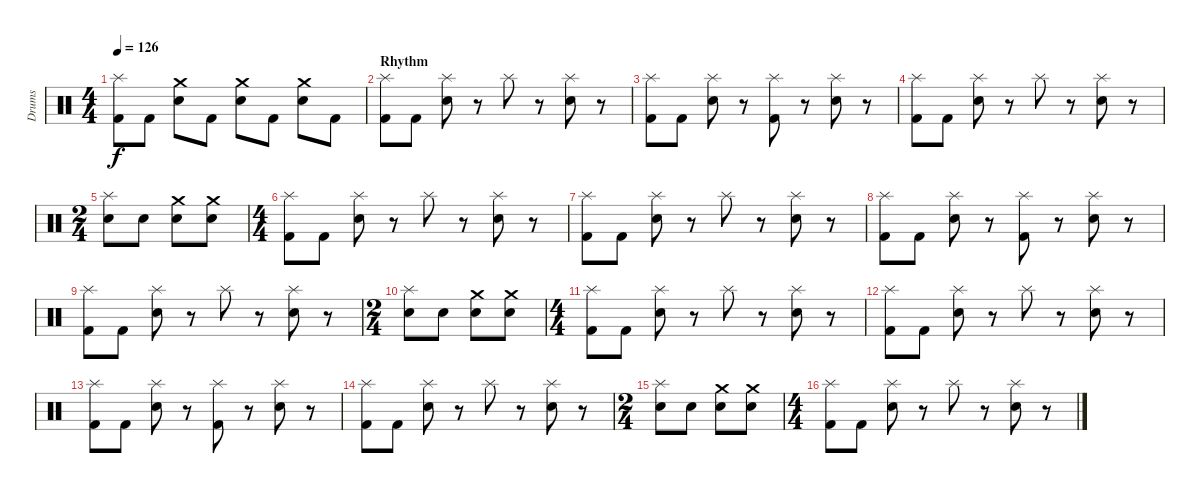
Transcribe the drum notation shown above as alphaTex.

\track ("Drums" "Drums") {instrument percussion}
\staff {score}
\articulation defaults
\ts (4 4)
\tempo 126
\clef neutral
\ks c
("Kick (hit) 2" "Splash (hit)").8{dy f} "Kick (hit) 2".8 ("Snare (hit) 2" "Crash medium (hit)").8 "Kick (hit) 2".8 ("Snare (hit) 2" "Crash medium (hit)").8 "Kick (hit) 2".8 ("Snare (hit) 2" "Crash medium (hit)").8 "Kick (hit) 2".8 |
\section ("" "Rhythm")
("Splash (hit)" "Kick (hit) 2").8 "Kick (hit) 2".8 ("Splash (hit)" "Snare (hit) 2").8 r.8 "Splash (hit)".8 r.8 ("Splash (hit)" "Snare (hit) 2").8 r.8 |
("Splash (hit)" "Kick (hit) 2").8 "Kick (hit) 2".8 ("Splash (hit)" "Snare (hit) 2").8 r.8 ("Splash (hit)" "Kick (hit) 2").8 r.8 ("Splash (hit)" "Snare (hit) 2").8 r.8 |
("Splash (hit)" "Kick (hit) 2").8 "Kick (hit) 2".8 ("Splash (hit)" "Snare (hit) 2").8 r.8 "Splash (hit)".8 r.8 ("Splash (hit)" "Snare (hit) 2").8 r.8 |
\ts (2 4)
("Splash (hit)" "Snare (hit) 2").8 "Snare (hit) 2".8 ("Crash medium (hit)" "Snare (hit) 2").8 ("Crash medium (hit)" "Snare (hit) 2").8 |
\ts (4 4)
("Splash (hit)" "Kick (hit) 2").8 "Kick (hit) 2".8 ("Splash (hit)" "Snare (hit) 2").8 r.8 "Splash (hit)".8 r.8 ("Splash (hit)" "Snare (hit) 2").8 r.8 |
("Splash (hit)" "Kick (hit) 2").8 "Kick (hit) 2".8 ("Splash (hit)" "Snare (hit) 2").8 r.8 "Splash (hit)".8 r.8 ("Splash (hit)" "Snare (hit) 2").8 r.8 |
("Splash (hit)" "Kick (hit) 2").8 "Kick (hit) 2".8 ("Splash (hit)" "Snare (hit) 2").8 r.8 ("Splash (hit)" "Kick (hit) 2").8 r.8 ("Splash (hit)" "Snare (hit) 2").8 r.8 |
("Splash (hit)" "Kick (hit) 2").8 "Kick (hit) 2".8 ("Splash (hit)" "Snare (hit) 2").8 r.8 "Splash (hit)".8 r.8 ("Splash (hit)" "Snare (hit) 2").8 r.8 |
\ts (2 4)
("Splash (hit)" "Snare (hit) 2").8 "Snare (hit) 2".8 ("Crash medium (hit)" "Snare (hit) 2").8 ("Crash medium (hit)" "Snare (hit) 2").8 |
\ts (4 4)
("Splash (hit)" "Kick (hit) 2").8 "Kick (hit) 2".8 ("Splash (hit)" "Snare (hit) 2").8 r.8 "Splash (hit)".8 r.8 ("Splash (hit)" "Snare (hit) 2").8 r.8 |
("Splash (hit)" "Kick (hit) 2").8 "Kick (hit) 2".8 ("Splash (hit)" "Snare (hit) 2").8 r.8 "Splash (hit)".8 r.8 ("Splash (hit)" "Snare (hit) 2").8 r.8 |
("Splash (hit)" "Kick (hit) 2").8 "Kick (hit) 2".8 ("Splash (hit)" "Snare (hit) 2").8 r.8 ("Splash (hit)" "Kick (hit) 2").8 r.8 ("Splash (hit)" "Snare (hit) 2").8 r.8 |
("Splash (hit)" "Kick (hit) 2").8 "Kick (hit) 2".8 ("Splash (hit)" "Snare (hit) 2").8 r.8 "Splash (hit)".8 r.8 ("Splash (hit)" "Snare (hit) 2").8 r.8 |
\ts (2 4)
("Splash (hit)" "Snare (hit) 2").8 "Snare (hit) 2".8 ("Crash medium (hit)" "Snare (hit) 2").8 ("Crash medium (hit)" "Snare (hit) 2").8 |
\ts (4 4)
("Splash (hit)" "Kick (hit) 2").8 "Kick (hit) 2".8 ("Splash (hit)" "Snare (hit) 2").8 r.8 "Splash (hit)".8 r.8 ("Splash (hit)" "Snare (hit) 2").8 r.8
